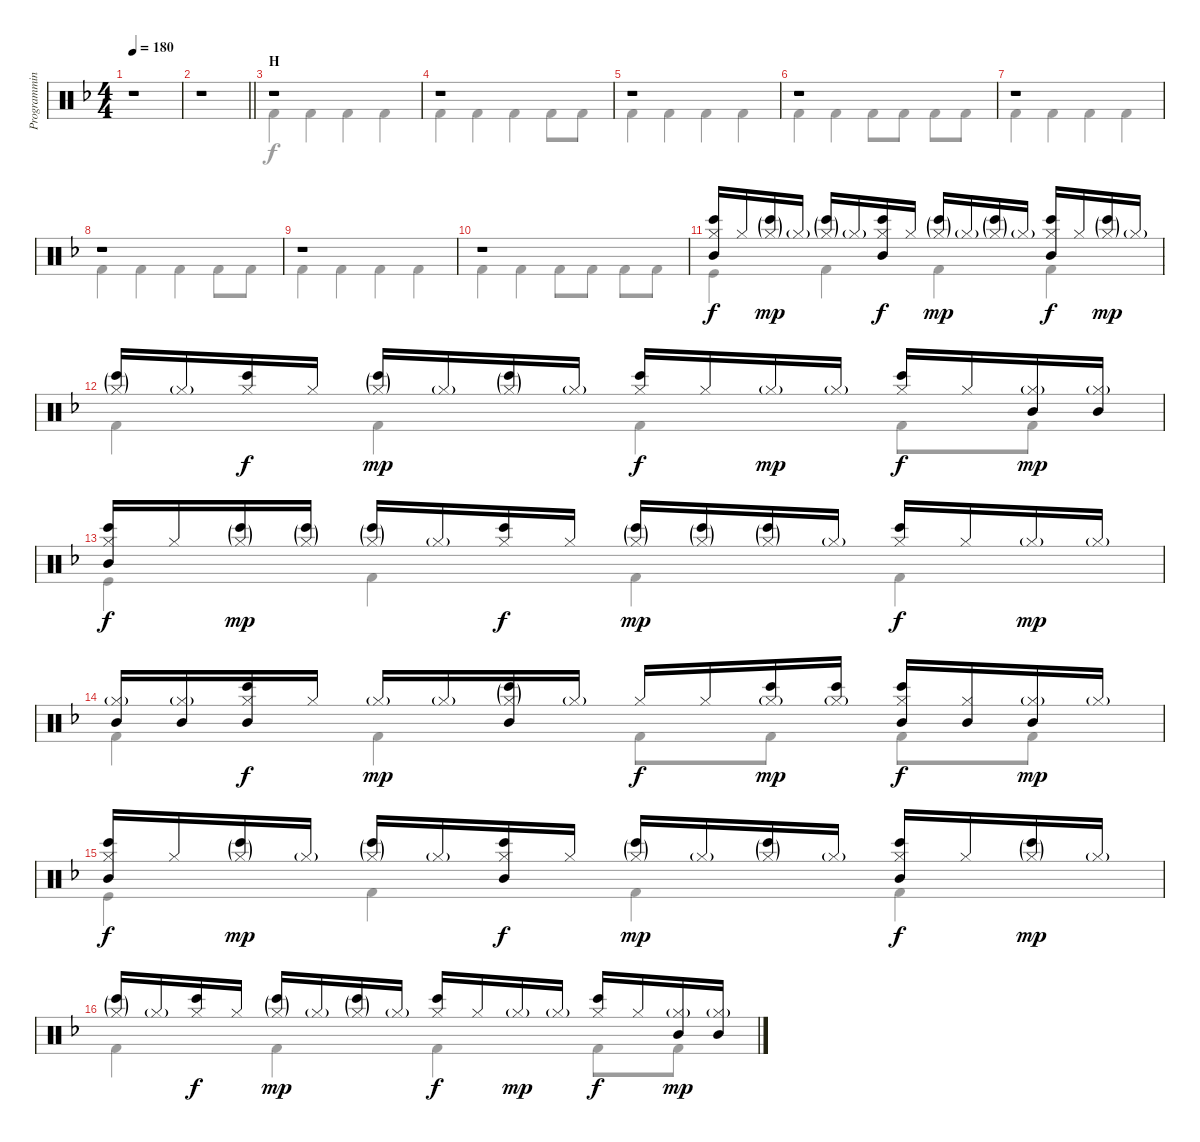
\track ("Programming" "Programmin") {instrument percussion}
\staff {score}
\articulation defaults
\voice
\ts (4 4)
\tempo 180
\clef neutral
\ks f
r.1{dy mp} |
\barLineRight lightlight
r.1 |
\section ("" "H")
r.1 |
r.1 |
r.1 |
r.1 |
r.1 |
r.1 |
r.1 |
r.1 |
("Hi-Hat (closed)" "Bongo High (hit)" "Mid Tom (hit)").16{dy f} "Hi-Hat (closed)".16 ("Hi-Hat (closed)"{g} "Bongo High (hit)"{g}).16{dy mp} "Hi-Hat (closed)"{g}.16 ("Hi-Hat (closed)"{g} "Bongo High (hit)"{g}).16 "Hi-Hat (closed)"{g}.16 ("Hi-Hat (closed)" "Bongo High (hit)" "Mid Tom (hit)").16{dy f} "Hi-Hat (closed)".16 ("Hi-Hat (closed)"{g} "Bongo High (hit)"{g}).16{dy mp} "Hi-Hat (closed)"{g}.16 ("Hi-Hat (closed)"{g} "Bongo High (hit)"{g}).16 "Hi-Hat (closed)"{g}.16 ("Hi-Hat (closed)" "Bongo High (hit)" "Mid Tom (hit)").16{dy f} "Hi-Hat (closed)".16 ("Hi-Hat (closed)"{g} "Bongo High (hit)"{g}).16{dy mp} "Hi-Hat (closed)"{g}.16 |
("Hi-Hat (closed)"{g} "Bongo High (hit)"{g}).16 "Hi-Hat (closed)"{g}.16 ("Hi-Hat (closed)" "Bongo High (hit)").16{dy f} "Hi-Hat (closed)".16 ("Hi-Hat (closed)"{g} "Bongo High (hit)"{g}).16{dy mp} "Hi-Hat (closed)"{g}.16 ("Hi-Hat (closed)"{g} "Bongo High (hit)"{g}).16 "Hi-Hat (closed)"{g}.16 ("Hi-Hat (closed)" "Bongo High (hit)").16{dy f} "Hi-Hat (closed)".16 "Hi-Hat (closed)"{g}.16{dy mp} "Hi-Hat (closed)"{g}.16 ("Hi-Hat (closed)" "Bongo High (hit)").16{dy f} "Hi-Hat (closed)".16 ("Hi-Hat (closed)"{g} "Mid Tom (hit)").16{dy mp} ("Hi-Hat (closed)"{g} "Mid Tom (hit)").16 |
("Hi-Hat (closed)" "Bongo High (hit)" "Mid Tom (hit)").16{dy f} "Hi-Hat (closed)".16 ("Hi-Hat (closed)"{g} "Bongo High (hit)"{g}).16{dy mp} ("Hi-Hat (closed)"{g} "Bongo High (hit)"{g}).16 ("Hi-Hat (closed)"{g} "Bongo High (hit)"{g}).16 "Hi-Hat (closed)"{g}.16 ("Hi-Hat (closed)" "Bongo High (hit)").16{dy f} "Hi-Hat (closed)".16 ("Hi-Hat (closed)"{g} "Bongo High (hit)"{g}).16{dy mp} ("Hi-Hat (closed)"{g} "Bongo High (hit)"{g}).16 ("Hi-Hat (closed)"{g} "Bongo High (hit)"{g}).16 "Hi-Hat (closed)"{g}.16 ("Hi-Hat (closed)" "Bongo High (hit)").16{dy f} "Hi-Hat (closed)".16 "Hi-Hat (closed)"{g}.16{dy mp} "Hi-Hat (closed)"{g}.16 |
("Hi-Hat (closed)"{g} "Mid Tom (hit)").16 ("Hi-Hat (closed)"{g} "Mid Tom (hit)").16 ("Hi-Hat (closed)" "Bongo High (hit)" "Mid Tom (hit)").16{dy f} "Hi-Hat (closed)".16 "Hi-Hat (closed)"{g}.16{dy mp} "Hi-Hat (closed)"{g}.16 ("Hi-Hat (closed)"{g} "Bongo High (hit)"{g} "Mid Tom (hit)").16 "Hi-Hat (closed)"{g}.16 "Hi-Hat (closed)".16{dy f} "Hi-Hat (closed)".16 ("Hi-Hat (closed)"{g} "Bongo High (hit)").16{dy mp} ("Hi-Hat (closed)"{g} "Bongo High (hit)").16 ("Hi-Hat (closed)" "Bongo High (hit)" "Mid Tom (hit)").16{dy f} ("Hi-Hat (closed)" "Mid Tom (hit)").16 ("Hi-Hat (closed)"{g} "Mid Tom (hit)").16{dy mp} "Hi-Hat (closed)"{g}.16 |
("Hi-Hat (closed)" "Bongo High (hit)" "Mid Tom (hit)").16{dy f} "Hi-Hat (closed)".16 ("Hi-Hat (closed)"{g} "Bongo High (hit)"{g}).16{dy mp} "Hi-Hat (closed)"{g}.16 ("Hi-Hat (closed)"{g} "Bongo High (hit)"{g}).16 "Hi-Hat (closed)"{g}.16 ("Hi-Hat (closed)" "Bongo High (hit)" "Mid Tom (hit)").16{dy f} "Hi-Hat (closed)".16 ("Hi-Hat (closed)"{g} "Bongo High (hit)"{g}).16{dy mp} "Hi-Hat (closed)"{g}.16 ("Hi-Hat (closed)"{g} "Bongo High (hit)"{g}).16 "Hi-Hat (closed)"{g}.16 ("Hi-Hat (closed)" "Bongo High (hit)" "Mid Tom (hit)").16{dy f} "Hi-Hat (closed)".16 ("Hi-Hat (closed)"{g} "Bongo High (hit)"{g}).16{dy mp} "Hi-Hat (closed)"{g}.16 |
("Hi-Hat (closed)"{g} "Bongo High (hit)"{g}).16 "Hi-Hat (closed)"{g}.16 ("Hi-Hat (closed)" "Bongo High (hit)").16{dy f} "Hi-Hat (closed)".16 ("Hi-Hat (closed)"{g} "Bongo High (hit)"{g}).16{dy mp} "Hi-Hat (closed)"{g}.16 ("Hi-Hat (closed)"{g} "Bongo High (hit)"{g}).16 "Hi-Hat (closed)"{g}.16 ("Hi-Hat (closed)" "Bongo High (hit)").16{dy f} "Hi-Hat (closed)".16 "Hi-Hat (closed)"{g}.16{dy mp} "Hi-Hat (closed)"{g}.16 ("Hi-Hat (closed)" "Bongo High (hit)").16{dy f} "Hi-Hat (closed)".16 ("Hi-Hat (closed)"{g} "Mid Tom (hit)").16{dy mp} ("Hi-Hat (closed)"{g} "Mid Tom (hit)").16
\voice
\clef neutral
\ottava regular
\simile none
\ks f
r.1{dy f} |
\barLineRight lightlight
r.1 |
"Kick (hit) 2".4 "Kick (hit) 2".4 "Kick (hit) 2".4 "Kick (hit) 2".4 |
"Kick (hit) 2".4 "Kick (hit) 2".4 "Kick (hit) 2".4 "Kick (hit) 2".8 "Kick (hit) 2".8 |
"Kick (hit) 2".4 "Kick (hit) 2".4 "Kick (hit) 2".4 "Kick (hit) 2".4 |
"Kick (hit) 2".4 "Kick (hit) 2".4 "Kick (hit) 2".8 "Kick (hit) 2".8 "Kick (hit) 2".8 "Kick (hit) 2".8 |
"Kick (hit) 2".4 "Kick (hit) 2".4 "Kick (hit) 2".4 "Kick (hit) 2".4 |
"Kick (hit) 2".4 "Kick (hit) 2".4 "Kick (hit) 2".4 "Kick (hit) 2".8 "Kick (hit) 2".8 |
"Kick (hit) 2".4 "Kick (hit) 2".4 "Kick (hit) 2".4 "Kick (hit) 2".4 |
"Kick (hit) 2".4 "Kick (hit) 2".4 "Kick (hit) 2".8 "Kick (hit) 2".8 "Kick (hit) 2".8 "Kick (hit) 2".8 |
"Kick (hit)".4 "Kick (hit) 2".4 "Kick (hit) 2".4 "Kick (hit) 2".4 |
"Kick (hit) 2".4 "Kick (hit) 2".4 "Kick (hit) 2".4 "Kick (hit) 2".8 "Kick (hit) 2".8 |
"Kick (hit)".4 "Kick (hit) 2".4 "Kick (hit) 2".4 "Kick (hit) 2".4 |
"Kick (hit) 2".4 "Kick (hit) 2".4 "Kick (hit) 2".8 "Kick (hit) 2".8 "Kick (hit) 2".8 "Kick (hit) 2".8 |
"Kick (hit)".4 "Kick (hit) 2".4 "Kick (hit) 2".4 "Kick (hit) 2".4 |
"Kick (hit) 2".4 "Kick (hit) 2".4 "Kick (hit) 2".4 "Kick (hit) 2".8 "Kick (hit) 2".8
